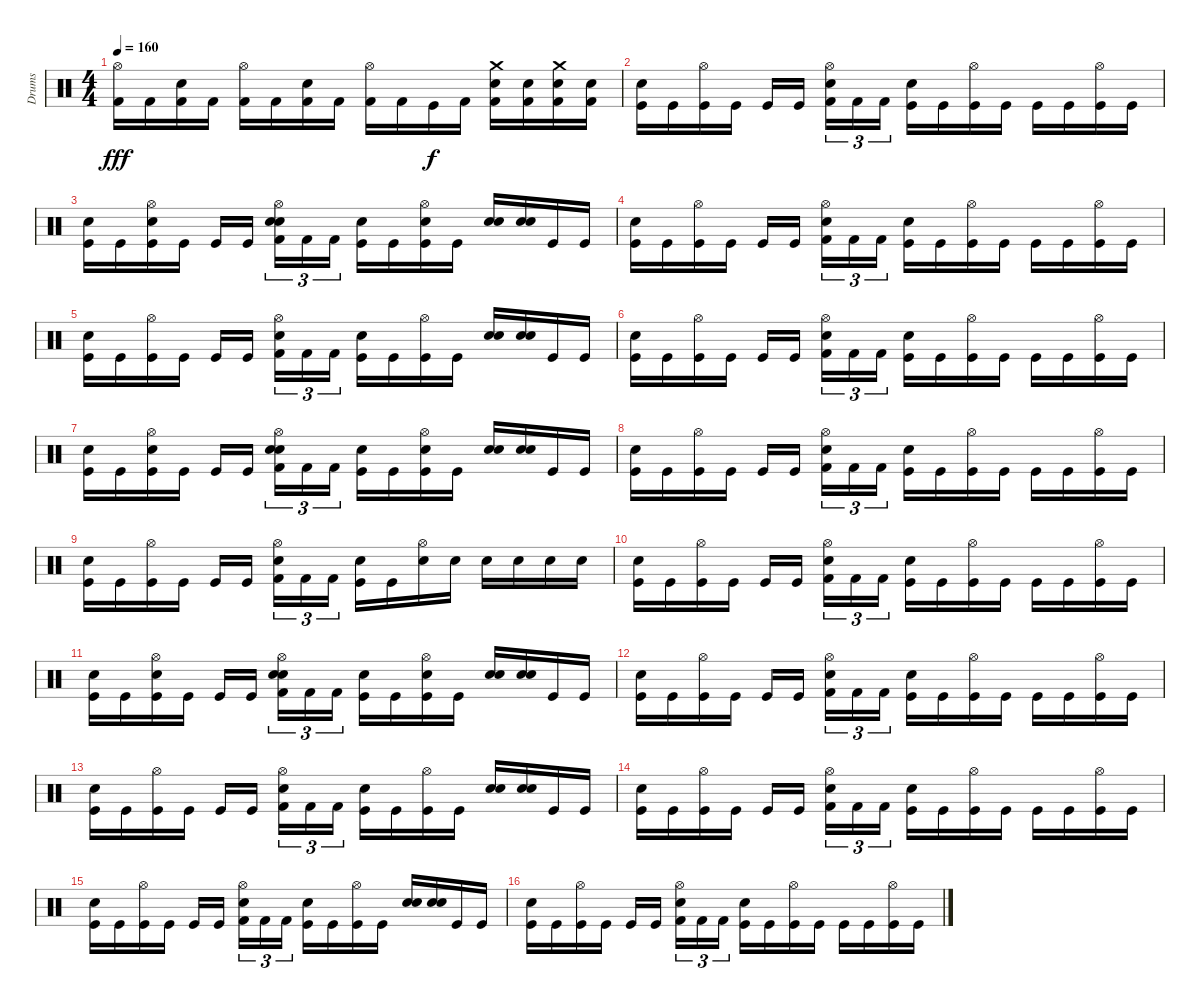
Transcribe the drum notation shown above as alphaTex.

\track ("Drums" "Drums") {instrument percussion}
\staff {score}
\articulation defaults
\ts (4 4)
\tempo 160
\clef neutral
\ks c
("Hi-Hat (open)" "Kick (hit) 2").16{dy fff} "Kick (hit) 2".16 ("Snare (hit) 2" "Kick (hit) 2").16 "Kick (hit) 2".16 ("Hi-Hat (open)" "Kick (hit) 2").16 "Kick (hit) 2".16 ("Snare (hit) 2" "Kick (hit) 2").16 "Kick (hit) 2".16 ("Hi-Hat (open)" "Kick (hit) 2").16 "Kick (hit) 2".16 "Kick (hit)".16{dy f} "Kick (hit) 2".16 ("Crash medium (hit)" "Snare (hit) 2" "Kick (hit) 2").16 ("Electric Snare (hit)" "Kick (hit) 2").16 ("Crash medium (hit)" "Snare (hit) 2" "Kick (hit) 2").16 ("Electric Snare (hit)" "Kick (hit) 2").16 |
("Snare (hit) 2" "Kick (hit)").16 "Kick (hit)".16 ("Hi-Hat (open)" "Kick (hit)").16 "Kick (hit)".16 "Kick (hit)".16 "Kick (hit)".16 ("Hi-Hat (open)" "Snare (hit) 2" "Kick (hit) 2").16{tu (3 2)} "Kick (hit) 2".16{tu (3 2)} "Kick (hit) 2".16{tu (3 2)} ("Snare (hit) 2" "Kick (hit)").16 "Kick (hit)".16 ("Hi-Hat (open)" "Kick (hit)").16 "Kick (hit)".16 "Kick (hit)".16 "Kick (hit)".16 ("Hi-Hat (open)" "Kick (hit)").16 "Kick (hit)".16 |
("Snare (hit) 2" "Kick (hit)").16 "Kick (hit)".16 ("Hi-Hat (open)" "Snare (hit) 2" "Kick (hit)").16 "Kick (hit)".16 "Kick (hit)".16 "Kick (hit)".16 ("Hi-Hat (open)" "Snare (hit) 2" "Snare (hit) 2" "Kick (hit) 2").16{tu (3 2)} "Kick (hit) 2".16{tu (3 2)} "Kick (hit) 2".16{tu (3 2)} ("Snare (hit) 2" "Kick (hit)").16 "Kick (hit)".16 ("Hi-Hat (open)" "Snare (hit) 2" "Kick (hit)").16 "Kick (hit)".16 ("Electric Snare (hit)" "Snare (hit) 2").16 ("Electric Snare (hit)" "Snare (hit) 2").16 "Kick (hit)".16 "Kick (hit)".16 |
("Snare (hit) 2" "Kick (hit)").16 "Kick (hit)".16 ("Hi-Hat (open)" "Kick (hit)").16 "Kick (hit)".16 "Kick (hit)".16 "Kick (hit)".16 ("Hi-Hat (open)" "Snare (hit) 2" "Kick (hit) 2").16{tu (3 2)} "Kick (hit) 2".16{tu (3 2)} "Kick (hit) 2".16{tu (3 2)} ("Snare (hit) 2" "Kick (hit)").16 "Kick (hit)".16 ("Hi-Hat (open)" "Kick (hit)").16 "Kick (hit)".16 "Kick (hit)".16 "Kick (hit)".16 ("Hi-Hat (open)" "Kick (hit)").16 "Kick (hit)".16 |
("Snare (hit) 2" "Kick (hit)").16 "Kick (hit)".16 ("Hi-Hat (open)" "Kick (hit)").16 "Kick (hit)".16 "Kick (hit)".16 "Kick (hit)".16 ("Hi-Hat (open)" "Snare (hit) 2" "Kick (hit) 2").16{tu (3 2)} "Kick (hit) 2".16{tu (3 2)} "Kick (hit) 2".16{tu (3 2)} ("Snare (hit) 2" "Kick (hit)").16 "Kick (hit)".16 ("Hi-Hat (open)" "Kick (hit)").16 "Kick (hit)".16 ("Electric Snare (hit)" "Snare (hit) 2").16 ("Electric Snare (hit)" "Snare (hit) 2").16 "Kick (hit)".16 "Kick (hit)".16 |
("Snare (hit) 2" "Kick (hit)").16 "Kick (hit)".16 ("Hi-Hat (open)" "Kick (hit)").16 "Kick (hit)".16 "Kick (hit)".16 "Kick (hit)".16 ("Hi-Hat (open)" "Snare (hit) 2" "Kick (hit) 2").16{tu (3 2)} "Kick (hit) 2".16{tu (3 2)} "Kick (hit) 2".16{tu (3 2)} ("Snare (hit) 2" "Kick (hit)").16 "Kick (hit)".16 ("Hi-Hat (open)" "Kick (hit)").16 "Kick (hit)".16 "Kick (hit)".16 "Kick (hit)".16 ("Hi-Hat (open)" "Kick (hit)").16 "Kick (hit)".16 |
("Snare (hit) 2" "Kick (hit)").16 "Kick (hit)".16 ("Hi-Hat (open)" "Snare (hit) 2" "Kick (hit)").16 "Kick (hit)".16 "Kick (hit)".16 "Kick (hit)".16 ("Hi-Hat (open)" "Snare (hit) 2" "Snare (hit) 2" "Kick (hit) 2").16{tu (3 2)} "Kick (hit) 2".16{tu (3 2)} "Kick (hit) 2".16{tu (3 2)} ("Snare (hit) 2" "Kick (hit)").16 "Kick (hit)".16 ("Hi-Hat (open)" "Snare (hit) 2" "Kick (hit)").16 "Kick (hit)".16 ("Electric Snare (hit)" "Snare (hit) 2").16 ("Electric Snare (hit)" "Snare (hit) 2").16 "Kick (hit)".16 "Kick (hit)".16 |
("Snare (hit) 2" "Kick (hit)").16 "Kick (hit)".16 ("Hi-Hat (open)" "Kick (hit)").16 "Kick (hit)".16 "Kick (hit)".16 "Kick (hit)".16 ("Hi-Hat (open)" "Snare (hit) 2" "Kick (hit) 2").16{tu (3 2)} "Kick (hit) 2".16{tu (3 2)} "Kick (hit) 2".16{tu (3 2)} ("Snare (hit) 2" "Kick (hit)").16 "Kick (hit)".16 ("Hi-Hat (open)" "Kick (hit)").16 "Kick (hit)".16 "Kick (hit)".16 "Kick (hit)".16 ("Hi-Hat (open)" "Kick (hit)").16 "Kick (hit)".16 |
("Snare (hit) 2" "Kick (hit)").16 "Kick (hit)".16 ("Hi-Hat (open)" "Kick (hit)").16 "Kick (hit)".16 "Kick (hit)".16 "Kick (hit)".16 ("Hi-Hat (open)" "Snare (hit) 2" "Kick (hit) 2").16{tu (3 2)} "Kick (hit) 2".16{tu (3 2)} "Kick (hit) 2".16{tu (3 2)} ("Snare (hit) 2" "Kick (hit)").16 "Kick (hit)".16 ("Hi-Hat (open)" "Snare (hit) 2").16 "Snare (hit) 2".16 "Snare (hit) 2".16 "Snare (hit) 2".16 "Snare (hit) 2".16 "Snare (hit) 2".16 |
("Snare (hit) 2" "Kick (hit)").16 "Kick (hit)".16 ("Hi-Hat (open)" "Kick (hit)").16 "Kick (hit)".16 "Kick (hit)".16 "Kick (hit)".16 ("Hi-Hat (open)" "Snare (hit) 2" "Kick (hit) 2").16{tu (3 2)} "Kick (hit) 2".16{tu (3 2)} "Kick (hit) 2".16{tu (3 2)} ("Snare (hit) 2" "Kick (hit)").16 "Kick (hit)".16 ("Hi-Hat (open)" "Kick (hit)").16 "Kick (hit)".16 "Kick (hit)".16 "Kick (hit)".16 ("Hi-Hat (open)" "Kick (hit)").16 "Kick (hit)".16 |
("Snare (hit) 2" "Kick (hit)").16 "Kick (hit)".16 ("Hi-Hat (open)" "Snare (hit) 2" "Kick (hit)").16 "Kick (hit)".16 "Kick (hit)".16 "Kick (hit)".16 ("Hi-Hat (open)" "Snare (hit) 2" "Snare (hit) 2" "Kick (hit) 2").16{tu (3 2)} "Kick (hit) 2".16{tu (3 2)} "Kick (hit) 2".16{tu (3 2)} ("Snare (hit) 2" "Kick (hit)").16 "Kick (hit)".16 ("Hi-Hat (open)" "Snare (hit) 2" "Kick (hit)").16 "Kick (hit)".16 ("Electric Snare (hit)" "Snare (hit) 2").16 ("Electric Snare (hit)" "Snare (hit) 2").16 "Kick (hit)".16 "Kick (hit)".16 |
("Snare (hit) 2" "Kick (hit)").16 "Kick (hit)".16 ("Hi-Hat (open)" "Kick (hit)").16 "Kick (hit)".16 "Kick (hit)".16 "Kick (hit)".16 ("Hi-Hat (open)" "Snare (hit) 2" "Kick (hit) 2").16{tu (3 2)} "Kick (hit) 2".16{tu (3 2)} "Kick (hit) 2".16{tu (3 2)} ("Snare (hit) 2" "Kick (hit)").16 "Kick (hit)".16 ("Hi-Hat (open)" "Kick (hit)").16 "Kick (hit)".16 "Kick (hit)".16 "Kick (hit)".16 ("Hi-Hat (open)" "Kick (hit)").16 "Kick (hit)".16 |
("Snare (hit) 2" "Kick (hit)").16 "Kick (hit)".16 ("Hi-Hat (open)" "Kick (hit)").16 "Kick (hit)".16 "Kick (hit)".16 "Kick (hit)".16 ("Hi-Hat (open)" "Snare (hit) 2" "Kick (hit) 2").16{tu (3 2)} "Kick (hit) 2".16{tu (3 2)} "Kick (hit) 2".16{tu (3 2)} ("Snare (hit) 2" "Kick (hit)").16 "Kick (hit)".16 ("Hi-Hat (open)" "Kick (hit)").16 "Kick (hit)".16 ("Electric Snare (hit)" "Snare (hit) 2").16 ("Electric Snare (hit)" "Snare (hit) 2").16 "Kick (hit)".16 "Kick (hit)".16 |
("Snare (hit) 2" "Kick (hit)").16 "Kick (hit)".16 ("Hi-Hat (open)" "Kick (hit)").16 "Kick (hit)".16 "Kick (hit)".16 "Kick (hit)".16 ("Hi-Hat (open)" "Snare (hit) 2" "Kick (hit) 2").16{tu (3 2)} "Kick (hit) 2".16{tu (3 2)} "Kick (hit) 2".16{tu (3 2)} ("Snare (hit) 2" "Kick (hit)").16 "Kick (hit)".16 ("Hi-Hat (open)" "Kick (hit)").16 "Kick (hit)".16 "Kick (hit)".16 "Kick (hit)".16 ("Hi-Hat (open)" "Kick (hit)").16 "Kick (hit)".16 |
("Snare (hit) 2" "Kick (hit)").16 "Kick (hit)".16 ("Hi-Hat (open)" "Kick (hit)").16 "Kick (hit)".16 "Kick (hit)".16 "Kick (hit)".16 ("Hi-Hat (open)" "Snare (hit) 2" "Kick (hit) 2").16{tu (3 2)} "Kick (hit) 2".16{tu (3 2)} "Kick (hit) 2".16{tu (3 2)} ("Snare (hit) 2" "Kick (hit)").16 "Kick (hit)".16 ("Hi-Hat (open)" "Kick (hit)").16 "Kick (hit)".16 ("Electric Snare (hit)" "Snare (hit) 2").16 ("Electric Snare (hit)" "Snare (hit) 2").16 "Kick (hit)".16 "Kick (hit)".16 |
("Snare (hit) 2" "Kick (hit)").16 "Kick (hit)".16 ("Hi-Hat (open)" "Kick (hit)").16 "Kick (hit)".16 "Kick (hit)".16 "Kick (hit)".16 ("Hi-Hat (open)" "Snare (hit) 2" "Kick (hit) 2").16{tu (3 2)} "Kick (hit) 2".16{tu (3 2)} "Kick (hit) 2".16{tu (3 2)} ("Snare (hit) 2" "Kick (hit)").16 "Kick (hit)".16 ("Hi-Hat (open)" "Kick (hit)").16 "Kick (hit)".16 "Kick (hit)".16 "Kick (hit)".16 ("Hi-Hat (open)" "Kick (hit)").16 "Kick (hit)".16
